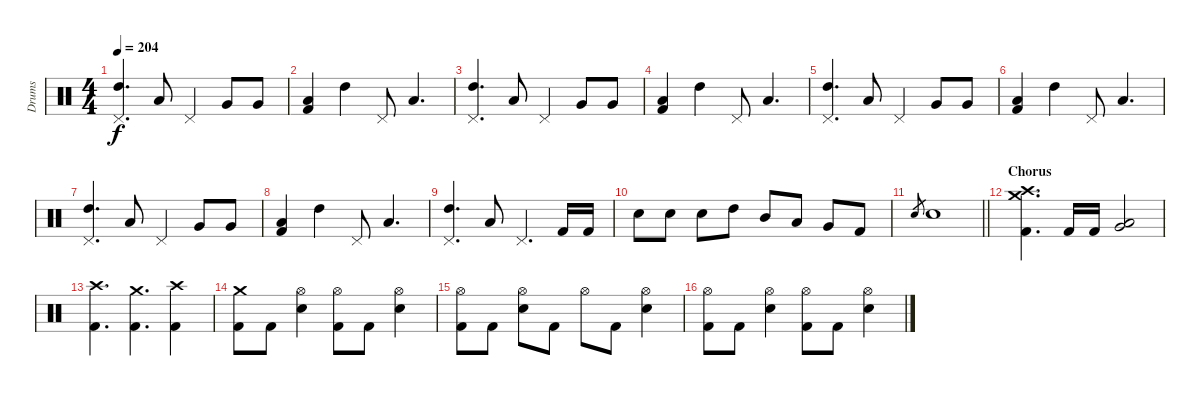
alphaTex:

\track ("Drums" "Drums") {instrument percussion}
\staff {score}
\articulation defaults
\ts (4 4)
\tempo 204
\clef neutral
\ks c
("High Tom (hit)" "Pedal Hi-Hat (hit)").4{d dy f} "Low Tom (hit)".8 "Pedal Hi-Hat (hit)".4 "Very Low Tom (hit)".8 "Very Low Tom (hit)".8 |
("Low Floor Tom (hit)" "Kick (hit) 2").4 "High Tom (hit)".4 "Pedal Hi-Hat (hit)".8 "Low Tom (hit)".4{d} |
("High Tom (hit)" "Pedal Hi-Hat (hit)").4{d} "Low Tom (hit)".8 "Pedal Hi-Hat (hit)".4 "Very Low Tom (hit)".8 "Very Low Tom (hit)".8 |
("Low Floor Tom (hit)" "Kick (hit) 2").4 "High Tom (hit)".4 "Pedal Hi-Hat (hit)".8 "Low Tom (hit)".4{d} |
("High Tom (hit)" "Pedal Hi-Hat (hit)").4{d} "Low Tom (hit)".8 "Pedal Hi-Hat (hit)".4 "Very Low Tom (hit)".8 "Very Low Tom (hit)".8 |
("Low Floor Tom (hit)" "Kick (hit) 2").4 "High Tom (hit)".4 "Pedal Hi-Hat (hit)".8 "Low Tom (hit)".4{d} |
("High Tom (hit)" "Pedal Hi-Hat (hit)").4{d} "Low Tom (hit)".8 "Pedal Hi-Hat (hit)".4 "Very Low Tom (hit)".8 "Very Low Tom (hit)".8 |
("Low Floor Tom (hit)" "Kick (hit) 2").4 "High Tom (hit)".4 "Pedal Hi-Hat (hit)".8 "Low Tom (hit)".4{d} |
("High Tom (hit)" "Pedal Hi-Hat (hit)").4{d} "Low Tom (hit)".8 "Pedal Hi-Hat (hit)".4{d} "Kick (hit) 2".16 "Kick (hit) 2".16 |
"Electric Snare (hit)".8 "Electric Snare (hit)".8 "Electric Snare (hit)".8 "High Tom (hit)".8 "Mid Tom (hit)".8 "Low Tom (hit)".8 "Very Low Tom (hit)".8 "Kick (hit) 2".8 |
\barLineRight lightlight "Electric Snare (hit)".8{gr} "Electric Snare (hit)".1
|
\section ("" "Chorus")
("Crash medium (hit)" "Crash high (hit)" "Kick (hit) 2").4{d} "Kick (hit) 2".16 "Kick (hit) 2".16 ("Very Low Tom (hit)" "Low Floor Tom (hit)").2 |
("Crash high (hit)" "Kick (hit) 2").4{d} ("Crash medium (hit)" "Kick (hit) 2").4{d} ("Crash high (hit)" "Kick (hit) 2").4 |
("Crash medium (hit)" "Kick (hit) 2").8 "Kick (hit) 2".8 ("Hi-Hat (open)" "Electric Snare (hit)").4 ("Hi-Hat (open)" "Kick (hit) 2").8 "Kick (hit) 2".8 ("Hi-Hat (open)" "Electric Snare (hit)").4 |
("Hi-Hat (open)" "Kick (hit) 2").8 "Kick (hit) 2".8 ("Hi-Hat (open)" "Electric Snare (hit)").8 "Kick (hit) 2".8 "Hi-Hat (open)".8 "Kick (hit) 2".8 ("Hi-Hat (open)" "Electric Snare (hit)").4 |
("Hi-Hat (open)" "Kick (hit) 2").8 "Kick (hit) 2".8 ("Hi-Hat (open)" "Electric Snare (hit)").4 ("Hi-Hat (open)" "Kick (hit) 2").8 "Kick (hit) 2".8 ("Hi-Hat (open)" "Electric Snare (hit)").4
